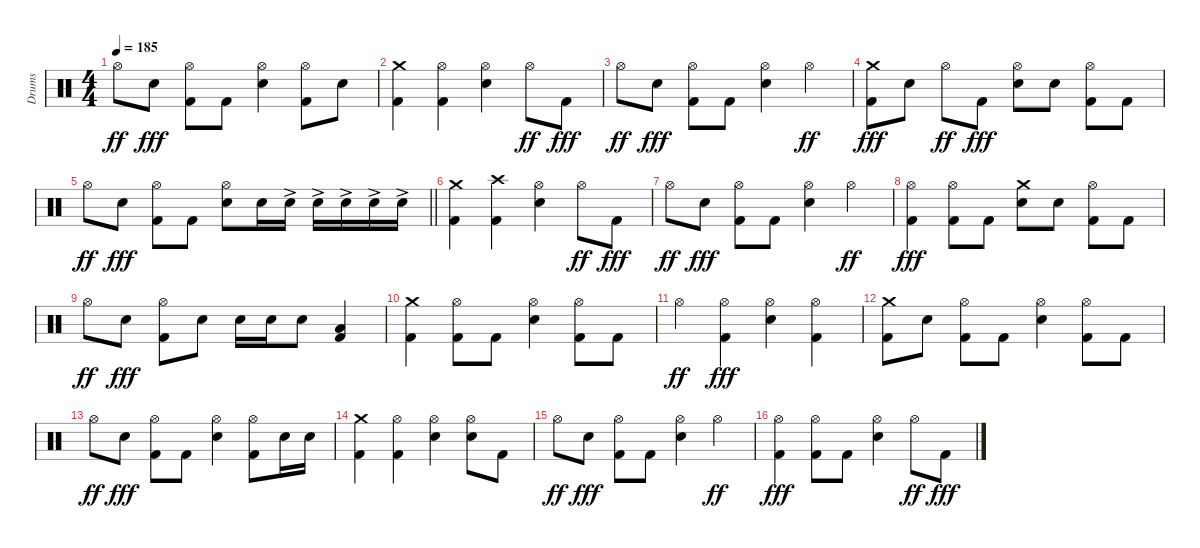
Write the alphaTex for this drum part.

\track ("Drums" "Drums") {instrument percussion}
\staff {score}
\articulation defaults
\ts (4 4)
\tempo 185
\clef neutral
\ks c "Hi-Hat (open)".8{dy ff} "Snare (hit) 2".8{dy fff}
("Hi-Hat (open)" "Kick (hit) 2").8 "Kick (hit) 2".8 ("Hi-Hat (open)" "Snare (hit) 2").4 ("Hi-Hat (open)" "Kick (hit) 2").8 "Snare (hit) 2".8 |
("Crash medium (hit)" "Kick (hit) 2").4 ("Hi-Hat (open)" "Kick (hit) 2").4 ("Hi-Hat (open)" "Snare (hit) 2").4 "Hi-Hat (open)".8{dy ff} "Kick (hit) 2".8{dy fff} |
"Hi-Hat (open)".8{dy ff} "Snare (hit) 2".8{dy fff} ("Hi-Hat (open)" "Kick (hit) 2").8 "Kick (hit) 2".8 ("Hi-Hat (open)" "Snare (hit) 2").4 "Hi-Hat (open)".4{dy ff} |
("Crash medium (hit)" "Kick (hit) 2").8{dy fff} "Snare (hit) 2".8 "Hi-Hat (open)".8{dy ff} "Kick (hit) 2".8{dy fff} ("Hi-Hat (open)" "Snare (hit) 2").8 "Snare (hit) 2".8 ("Hi-Hat (open)" "Kick (hit) 2").8 "Kick (hit) 2".8 |
\barLineRight lightlight "Hi-Hat (open)".8{dy ff} "Snare (hit) 2".8{dy fff}
("Hi-Hat (open)" "Kick (hit) 2").8 "Kick (hit) 2".8 ("Hi-Hat (open)" "Snare (hit) 2").8 "Snare (hit) 2".16 "Snare (hit) 2"{ac}.16 "Snare (hit) 2"{ac}.16 "Snare (hit) 2"{ac}.16 "Snare (hit) 2"{ac}.16 "Snare (hit) 2"{ac}.16 |
("Crash medium (hit)" "Kick (hit) 2").4 ("Crash high (hit)" "Kick (hit) 2").4 ("Hi-Hat (open)" "Snare (hit) 2").4 "Hi-Hat (open)".8{dy ff} "Kick (hit) 2".8{dy fff} |
"Hi-Hat (open)".8{dy ff} "Snare (hit) 2".8{dy fff} ("Hi-Hat (open)" "Kick (hit) 2").8 "Kick (hit) 2".8 ("Hi-Hat (open)" "Snare (hit) 2").4 "Hi-Hat (open)".4{dy ff} |
("Hi-Hat (open)" "Kick (hit) 2").4{dy fff} ("Hi-Hat (open)" "Kick (hit) 2").8 "Kick (hit) 2".8 ("Crash medium (hit)" "Snare (hit) 2").8 "Snare (hit) 2".8 ("Hi-Hat (open)" "Kick (hit) 2").8 "Kick (hit) 2".8 |
"Hi-Hat (open)".8{dy ff} "Snare (hit) 2".8{dy fff} ("Hi-Hat (open)" "Kick (hit) 2").8 "Snare (hit) 2".8 "Snare (hit) 2".16 "Snare (hit) 2".16 "Snare (hit) 2".8 ("Low Tom (hit)" "Kick (hit) 2").4 |
("Crash medium (hit)" "Kick (hit) 2").4 ("Hi-Hat (open)" "Kick (hit) 2").8 "Kick (hit) 2".8 ("Hi-Hat (open)" "Snare (hit) 2").4 ("Hi-Hat (open)" "Kick (hit) 2").8 "Kick (hit) 2".8 |
"Hi-Hat (open)".4{dy ff} ("Hi-Hat (open)" "Kick (hit) 2").4{dy fff} ("Hi-Hat (open)" "Snare (hit) 2").4 ("Hi-Hat (open)" "Kick (hit) 2").4 |
("Crash medium (hit)" "Kick (hit) 2").8 "Snare (hit) 2".8 ("Hi-Hat (open)" "Kick (hit) 2").8 "Kick (hit) 2".8 ("Hi-Hat (open)" "Snare (hit) 2").4 ("Hi-Hat (open)" "Kick (hit) 2").8 "Kick (hit) 2".8 |
"Hi-Hat (open)".8{dy ff} "Snare (hit) 2".8{dy fff} ("Hi-Hat (open)" "Kick (hit) 2").8 "Kick (hit) 2".8 ("Hi-Hat (open)" "Snare (hit) 2").4 ("Hi-Hat (open)" "Kick (hit) 2").8 "Snare (hit) 2".16 "Snare (hit) 2".16 |
("Crash medium (hit)" "Kick (hit) 2").4 ("Hi-Hat (open)" "Kick (hit) 2").4 ("Hi-Hat (open)" "Snare (hit) 2").4 ("Hi-Hat (open)" "Snare (hit) 2").8 "Kick (hit) 2".8 |
"Hi-Hat (open)".8{dy ff} "Snare (hit) 2".8{dy fff} ("Hi-Hat (open)" "Kick (hit) 2").8 "Kick (hit) 2".8 ("Hi-Hat (open)" "Snare (hit) 2").4 "Hi-Hat (open)".4{dy ff} |
("Hi-Hat (open)" "Kick (hit) 2").4{dy fff} ("Hi-Hat (open)" "Kick (hit) 2").8 "Kick (hit) 2".8 ("Hi-Hat (open)" "Snare (hit) 2").4 "Hi-Hat (open)".8{dy ff} "Kick (hit) 2".8{dy fff}
